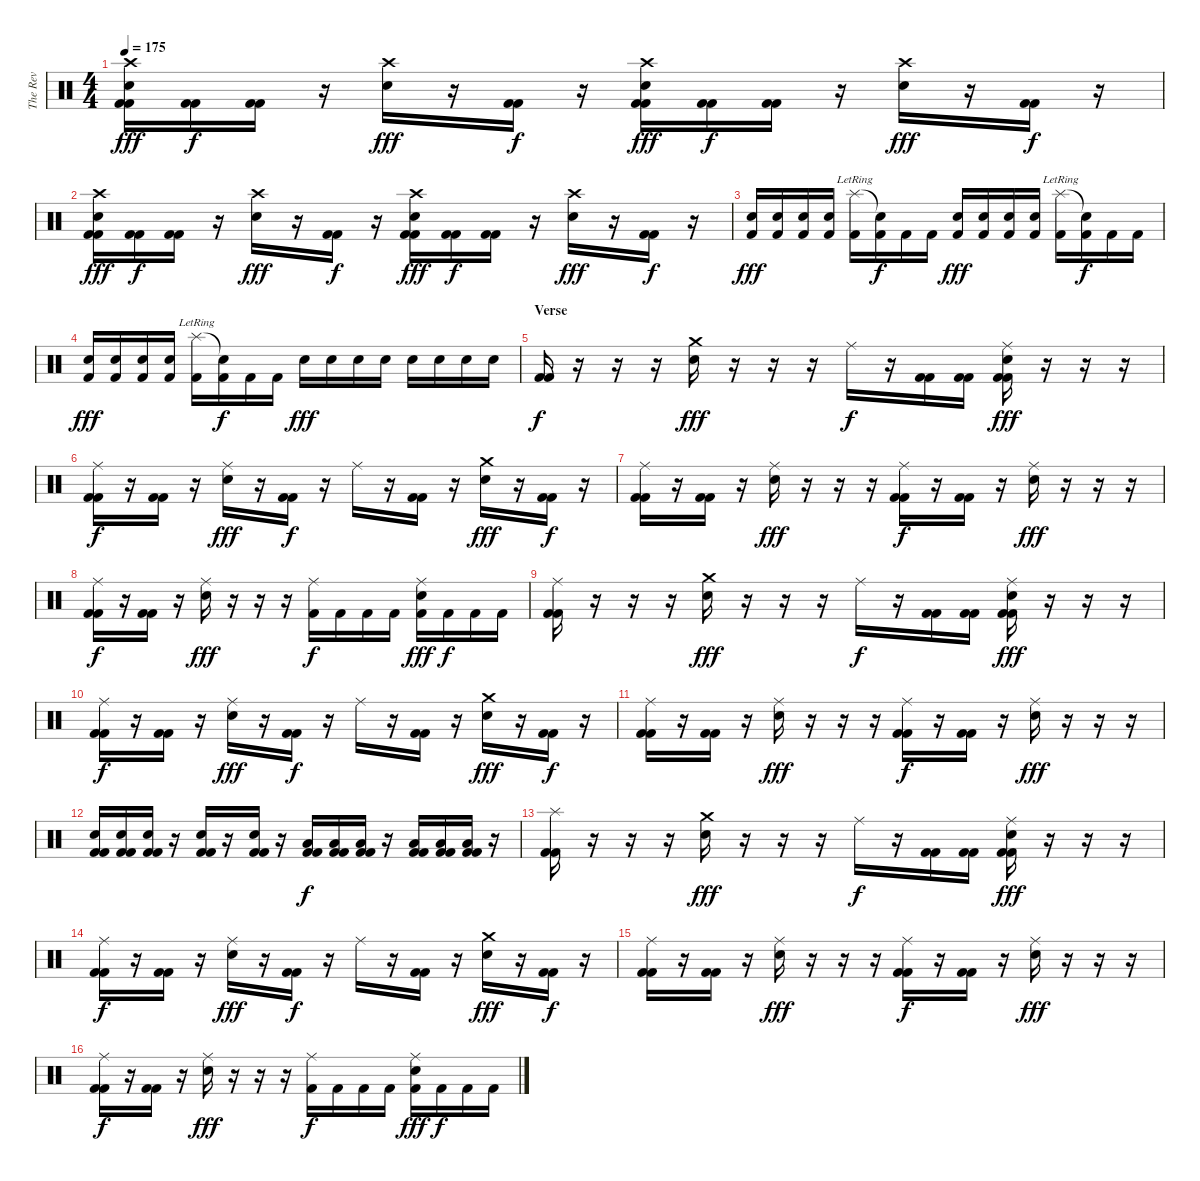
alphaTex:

\track ("The Rev" "The Rev") {instrument percussion}
\staff {score}
\articulation defaults
\ts (4 4)
\tempo 175
\clef neutral
\ks c
("Crash high (hit)" "Electric Snare (hit)" "Kick (hit) 2" "Kick (hit) 2").16{dy fff} ("Kick (hit) 2" "Kick (hit) 2").16{dy f} ("Kick (hit) 2" "Kick (hit) 2").16 r.16 ("Crash high (hit)" "Electric Snare (hit)").16{dy fff} r.16 ("Kick (hit) 2" "Kick (hit) 2").16{dy f} r.16 ("Crash high (hit)" "Electric Snare (hit)" "Kick (hit) 2" "Kick (hit) 2").16{dy fff} ("Kick (hit) 2" "Kick (hit) 2").16{dy f} ("Kick (hit) 2" "Kick (hit) 2").16 r.16 ("Crash high (hit)" "Electric Snare (hit)").16{dy fff} r.16 ("Kick (hit) 2" "Kick (hit) 2").16{dy f} r.16 |
("Crash high (hit)" "Electric Snare (hit)" "Kick (hit) 2" "Kick (hit) 2").16{dy fff} ("Kick (hit) 2" "Kick (hit) 2").16{dy f} ("Kick (hit) 2" "Kick (hit) 2").16 r.16 ("Crash high (hit)" "Electric Snare (hit)").16{dy fff} r.16 ("Kick (hit) 2" "Kick (hit) 2").16{dy f} r.16 ("Crash high (hit)" "Electric Snare (hit)" "Kick (hit) 2" "Kick (hit) 2").16{dy fff} ("Kick (hit) 2" "Kick (hit) 2").16{dy f} ("Kick (hit) 2" "Kick (hit) 2").16 r.16 ("Crash high (hit)" "Electric Snare (hit)").16{dy fff} r.16 ("Kick (hit) 2" "Kick (hit) 2").16{dy f} r.16 |
("Electric Snare (hit)" "Kick (hit) 2").16{dy fff} ("Electric Snare (hit)" "Kick (hit) 2").16 ("Electric Snare (hit)" "Kick (hit) 2").16 ("Electric Snare (hit)" "Kick (hit) 2").16 ("Splash (hit)"{lr} "Kick (hit) 2").16 ("Snare (hit)"{t} "Kick (hit) 2").16{dy f} "Kick (hit) 2".16 "Kick (hit) 2".16 ("Electric Snare (hit)" "Kick (hit) 2").16{dy fff} ("Electric Snare (hit)" "Kick (hit) 2").16 ("Electric Snare (hit)" "Kick (hit) 2").16 ("Electric Snare (hit)" "Kick (hit) 2").16 ("Splash (hit)"{lr} "Kick (hit) 2").16 ("Snare (hit)"{t} "Kick (hit) 2").16{dy f} "Kick (hit) 2".16 "Kick (hit) 2".16 |
("Electric Snare (hit)" "Kick (hit) 2").16{dy fff} ("Electric Snare (hit)" "Kick (hit) 2").16 ("Electric Snare (hit)" "Kick (hit) 2").16 ("Electric Snare (hit)" "Kick (hit) 2").16 ("Splash (hit)"{lr} "Kick (hit) 2").16 ("Snare (hit)"{t} "Kick (hit) 2").16{dy f} "Kick (hit) 2".16 "Kick (hit) 2".16 "Electric Snare (hit)".16{dy fff} "Electric Snare (hit)".16 "Electric Snare (hit)".16 "Electric Snare (hit)".16 "Electric Snare (hit)".16 "Electric Snare (hit)".16 "Electric Snare (hit)".16 "Electric Snare (hit)".16 |
\section ("" "Verse")
("Kick (hit) 2" "Kick (hit) 2").16{dy f} r.16 r.16 r.16 ("Crash medium (hit)" "Electric Snare (hit)").16{dy fff} r.16 r.16 r.16 "Ride (middle)".16{dy f} r.16 ("Kick (hit) 2" "Kick (hit) 2").16 ("Kick (hit) 2" "Kick (hit) 2").16 ("Ride (middle)" "Electric Snare (hit)" "Kick (hit) 2" "Kick (hit) 2").16{dy fff} r.16 r.16 r.16 |
("Ride (middle)" "Kick (hit) 2" "Kick (hit) 2").16{dy f} r.16 ("Kick (hit) 2" "Kick (hit) 2").16 r.16 ("Ride (middle)" "Electric Snare (hit)").16{dy fff} r.16 ("Kick (hit) 2" "Kick (hit) 2").16{dy f} r.16 "Ride (middle)".16 r.16 ("Kick (hit) 2" "Kick (hit) 2").16 r.16 ("Crash medium (hit)" "Electric Snare (hit)").16{dy fff} r.16 ("Kick (hit) 2" "Kick (hit) 2").16{dy f} r.16 |
("Ride (middle)" "Kick (hit) 2" "Kick (hit) 2").16 r.16 ("Kick (hit) 2" "Kick (hit) 2").16 r.16 ("Ride (middle)" "Electric Snare (hit)").16{dy fff} r.16 r.16 r.16 ("Ride (middle)" "Kick (hit) 2" "Kick (hit) 2").16{dy f} r.16 ("Kick (hit) 2" "Kick (hit) 2").16 r.16 ("Ride (middle)" "Electric Snare (hit)").16{dy fff} r.16 r.16 r.16 |
("Ride (middle)" "Kick (hit) 2" "Kick (hit) 2").16{dy f} r.16 ("Kick (hit) 2" "Kick (hit) 2").16 r.16 ("Ride (middle)" "Electric Snare (hit)").16{dy fff} r.16 r.16 r.16 ("Ride (middle)" "Kick (hit) 2").16{dy f} "Kick (hit) 2".16 "Kick (hit) 2".16 "Kick (hit) 2".16 ("Ride (middle)" "Electric Snare (hit)" "Kick (hit) 2").16{dy fff} "Kick (hit) 2".16{dy f} "Kick (hit) 2".16 "Kick (hit) 2".16 |
("Ride (middle)" "Kick (hit) 2" "Kick (hit) 2").16 r.16 r.16 r.16 ("Crash medium (hit)" "Electric Snare (hit)").16{dy fff} r.16 r.16 r.16 "Ride (middle)".16{dy f} r.16 ("Kick (hit) 2" "Kick (hit) 2").16 ("Kick (hit) 2" "Kick (hit) 2").16 ("Ride (middle)" "Electric Snare (hit)" "Kick (hit) 2" "Kick (hit) 2").16{dy fff} r.16 r.16 r.16 |
("Ride (middle)" "Kick (hit) 2" "Kick (hit) 2").16{dy f} r.16 ("Kick (hit) 2" "Kick (hit) 2").16 r.16 ("Ride (middle)" "Electric Snare (hit)").16{dy fff} r.16 ("Kick (hit) 2" "Kick (hit) 2").16{dy f} r.16 "Ride (middle)".16 r.16 ("Kick (hit) 2" "Kick (hit) 2").16 r.16 ("Crash medium (hit)" "Electric Snare (hit)").16{dy fff} r.16 ("Kick (hit) 2" "Kick (hit) 2").16{dy f} r.16 |
("Ride (middle)" "Kick (hit) 2" "Kick (hit) 2").16 r.16 ("Kick (hit) 2" "Kick (hit) 2").16 r.16 ("Ride (middle)" "Electric Snare (hit)").16{dy fff} r.16 r.16 r.16 ("Ride (middle)" "Kick (hit) 2" "Kick (hit) 2").16{dy f} r.16 ("Kick (hit) 2" "Kick (hit) 2").16 r.16 ("Ride (middle)" "Electric Snare (hit)").16{dy fff} r.16 r.16 r.16 |
("Electric Snare (hit)" "Kick (hit) 2" "Kick (hit) 2").16 ("Electric Snare (hit)" "Kick (hit) 2" "Kick (hit) 2").16 ("Electric Snare (hit)" "Kick (hit) 2" "Kick (hit) 2").16 r.16 ("Electric Snare (hit)" "Kick (hit) 2" "Kick (hit) 2").16 r.16 ("Electric Snare (hit)" "Kick (hit) 2" "Kick (hit) 2").16 r.16 ("Low Floor Tom (hit)" "Kick (hit) 2" "Kick (hit) 2").16{dy f} ("Low Floor Tom (hit)" "Kick (hit) 2" "Kick (hit) 2").16 ("Low Floor Tom (hit)" "Kick (hit) 2" "Kick (hit) 2").16 r.16 ("Low Floor Tom (hit)" "Kick (hit) 2" "Kick (hit) 2").16 ("Low Floor Tom (hit)" "Kick (hit) 2" "Kick (hit) 2").16 ("Low Floor Tom (hit)" "Kick (hit) 2" "Kick (hit) 2").16 r.16 |
("Splash (hit)" "Kick (hit) 2" "Kick (hit) 2").16 r.16 r.16 r.16 ("Crash medium (hit)" "Electric Snare (hit)").16{dy fff} r.16 r.16 r.16 "Ride (middle)".16{dy f} r.16 ("Kick (hit) 2" "Kick (hit) 2").16 ("Kick (hit) 2" "Kick (hit) 2").16 ("Ride (middle)" "Electric Snare (hit)" "Kick (hit) 2" "Kick (hit) 2").16{dy fff} r.16 r.16 r.16 |
("Ride (middle)" "Kick (hit) 2" "Kick (hit) 2").16{dy f} r.16 ("Kick (hit) 2" "Kick (hit) 2").16 r.16 ("Ride (middle)" "Electric Snare (hit)").16{dy fff} r.16 ("Kick (hit) 2" "Kick (hit) 2").16{dy f} r.16 "Ride (middle)".16 r.16 ("Kick (hit) 2" "Kick (hit) 2").16 r.16 ("Crash medium (hit)" "Electric Snare (hit)").16{dy fff} r.16 ("Kick (hit) 2" "Kick (hit) 2").16{dy f} r.16 |
("Ride (middle)" "Kick (hit) 2" "Kick (hit) 2").16 r.16 ("Kick (hit) 2" "Kick (hit) 2").16 r.16 ("Ride (middle)" "Electric Snare (hit)").16{dy fff} r.16 r.16 r.16 ("Ride (middle)" "Kick (hit) 2" "Kick (hit) 2").16{dy f} r.16 ("Kick (hit) 2" "Kick (hit) 2").16 r.16 ("Ride (middle)" "Electric Snare (hit)").16{dy fff} r.16 r.16 r.16 |
("Ride (middle)" "Kick (hit) 2" "Kick (hit) 2").16{dy f} r.16 ("Kick (hit) 2" "Kick (hit) 2").16 r.16 ("Ride (middle)" "Electric Snare (hit)").16{dy fff} r.16 r.16 r.16 ("Ride (middle)" "Kick (hit) 2").16{dy f} "Kick (hit) 2".16 "Kick (hit) 2".16 "Kick (hit) 2".16 ("Ride (middle)" "Electric Snare (hit)" "Kick (hit) 2").16{dy fff} "Kick (hit) 2".16{dy f} "Kick (hit) 2".16 "Kick (hit) 2".16
